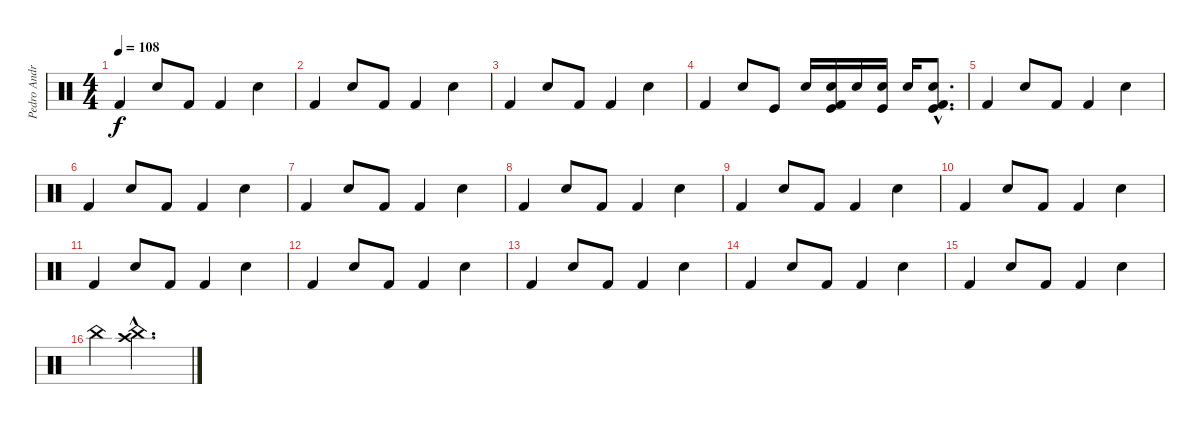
\track ("Pedro Andreu" "Pedro Andr") {instrument percussion}
\staff {score}
\articulation defaults
\ts (4 4)
\tempo 108
\clef neutral
\ks c "Kick (hit) 2".4{dy f} "Snare (hit) 2".8 "Kick (hit) 2".8 "Kick (hit) 2".4 "Snare (hit) 2".4
|
"Kick (hit) 2".4 "Snare (hit) 2".8 "Kick (hit) 2".8 "Kick (hit) 2".4 "Snare (hit) 2".4 |
"Kick (hit) 2".4 "Snare (hit) 2".8 "Kick (hit) 2".8 "Kick (hit) 2".4 "Snare (hit) 2".4 |
"Kick (hit) 2".4 "Snare (hit) 2".8 "Kick (hit)".8 "Snare (hit) 2".16 ("Snare (hit) 2" "Kick (hit) 2" "Kick (hit)").16 "Snare (hit) 2".16 ("Snare (hit) 2" "Kick (hit)").16 "Snare (hit) 2".16 ("Snare (hit) 2"{hac} "Kick (hit)"{hac} "Kick (hit) 2"{hac}).8{d} |
"Kick (hit) 2".4 "Snare (hit) 2".8 "Kick (hit) 2".8 "Kick (hit) 2".4 "Snare (hit) 2".4 |
"Kick (hit) 2".4 "Snare (hit) 2".8 "Kick (hit) 2".8 "Kick (hit) 2".4 "Snare (hit) 2".4 |
"Kick (hit) 2".4 "Snare (hit) 2".8 "Kick (hit) 2".8 "Kick (hit) 2".4 "Snare (hit) 2".4 |
"Kick (hit) 2".4 "Snare (hit) 2".8 "Kick (hit) 2".8 "Kick (hit) 2".4 "Snare (hit) 2".4 |
"Kick (hit) 2".4 "Snare (hit) 2".8 "Kick (hit) 2".8 "Kick (hit) 2".4 "Snare (hit) 2".4 |
"Kick (hit) 2".4 "Snare (hit) 2".8 "Kick (hit) 2".8 "Kick (hit) 2".4 "Snare (hit) 2".4 |
"Kick (hit) 2".4 "Snare (hit) 2".8 "Kick (hit) 2".8 "Kick (hit) 2".4 "Snare (hit) 2".4 |
"Kick (hit) 2".4 "Snare (hit) 2".8 "Kick (hit) 2".8 "Kick (hit) 2".4 "Snare (hit) 2".4 |
"Kick (hit) 2".4 "Snare (hit) 2".8 "Kick (hit) 2".8 "Kick (hit) 2".4 "Snare (hit) 2".4 |
"Kick (hit) 2".4 "Snare (hit) 2".8 "Kick (hit) 2".8 "Kick (hit) 2".4 "Snare (hit) 2".4 |
"Kick (hit) 2".4 "Snare (hit) 2".8 "Kick (hit) 2".8 "Kick (hit) 2".4 "Snare (hit) 2".4 |
"China (hit)".4 ("Crash high (hit)"{hac} "China (hit)"{hac}).2{d}
